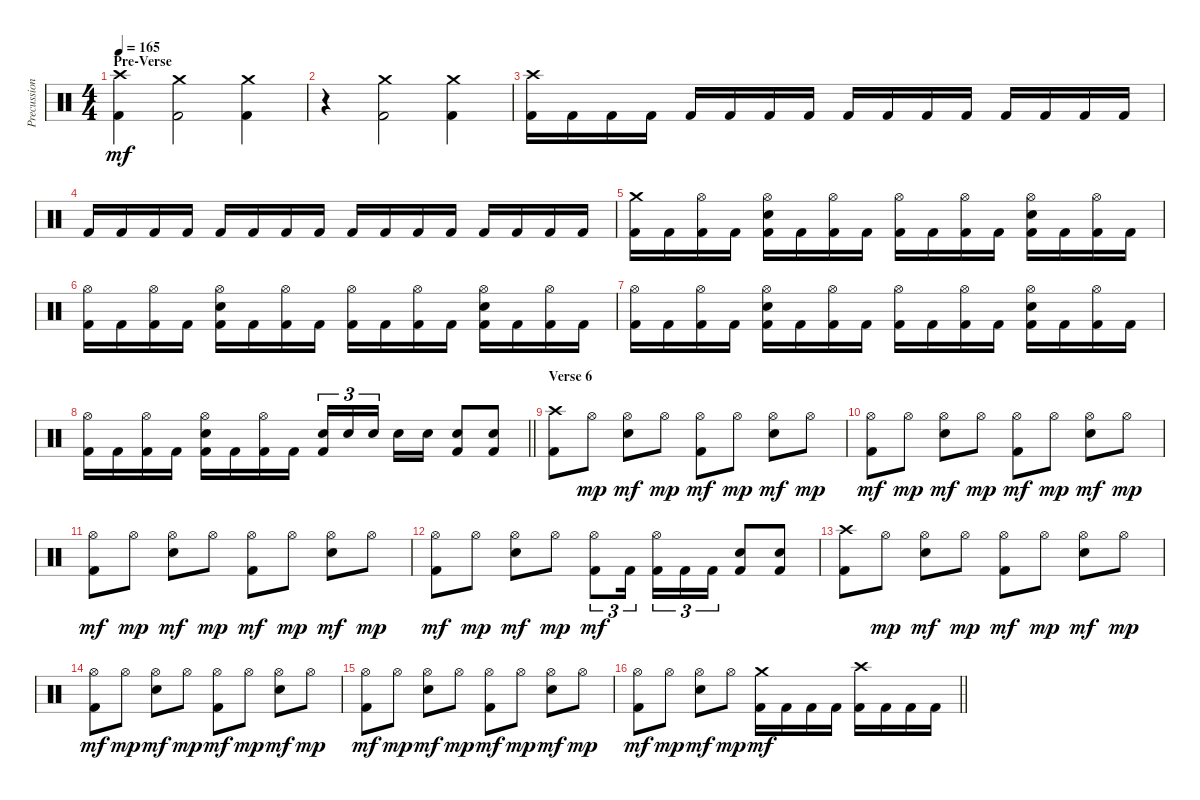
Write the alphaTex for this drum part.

\track ("Precussion" "Precussion") {instrument percussion}
\staff {score}
\articulation defaults
\ts (4 4)
\section ("" "Pre-Verse")
\tempo 165
\clef neutral
\ks c
("Crash high (hit)" "Kick (hit) 2").4{dy mf} ("Crash medium (hit)" "Kick (hit) 2").2 ("Crash medium (hit)" "Kick (hit) 2").4 |
r.4 ("Crash medium (hit)" "Kick (hit) 2").2 ("Crash medium (hit)" "Kick (hit) 2").4 |
("Crash high (hit)" "Kick (hit) 2").16 "Kick (hit) 2".16 "Kick (hit) 2".16 "Kick (hit) 2".16 "Kick (hit) 2".16 "Kick (hit) 2".16 "Kick (hit) 2".16 "Kick (hit) 2".16 "Kick (hit) 2".16 "Kick (hit) 2".16 "Kick (hit) 2".16 "Kick (hit) 2".16 "Kick (hit) 2".16 "Kick (hit) 2".16 "Kick (hit) 2".16 "Kick (hit) 2".16 |
"Kick (hit) 2".16 "Kick (hit) 2".16 "Kick (hit) 2".16 "Kick (hit) 2".16 "Kick (hit) 2".16 "Kick (hit) 2".16 "Kick (hit) 2".16 "Kick (hit) 2".16 "Kick (hit) 2".16 "Kick (hit) 2".16 "Kick (hit) 2".16 "Kick (hit) 2".16 "Kick (hit) 2".16 "Kick (hit) 2".16 "Kick (hit) 2".16 "Kick (hit) 2".16 |
("Crash medium (hit)" "Kick (hit) 2").16 "Kick (hit) 2".16 ("Hi-Hat (open)" "Kick (hit) 2").16 "Kick (hit) 2".16 ("Hi-Hat (open)" "Electric Snare (hit)" "Kick (hit) 2").16 "Kick (hit) 2".16 ("Hi-Hat (open)" "Kick (hit) 2").16 "Kick (hit) 2".16 ("Hi-Hat (open)" "Kick (hit) 2").16 "Kick (hit) 2".16 ("Hi-Hat (open)" "Kick (hit) 2").16 "Kick (hit) 2".16 ("Hi-Hat (open)" "Electric Snare (hit)" "Kick (hit) 2").16 "Kick (hit) 2".16 ("Hi-Hat (open)" "Kick (hit) 2").16 "Kick (hit) 2".16 |
("Hi-Hat (open)" "Kick (hit) 2").16 "Kick (hit) 2".16 ("Hi-Hat (open)" "Kick (hit) 2").16 "Kick (hit) 2".16 ("Hi-Hat (open)" "Electric Snare (hit)" "Kick (hit) 2").16 "Kick (hit) 2".16 ("Hi-Hat (open)" "Kick (hit) 2").16 "Kick (hit) 2".16 ("Hi-Hat (open)" "Kick (hit) 2").16 "Kick (hit) 2".16 ("Hi-Hat (open)" "Kick (hit) 2").16 "Kick (hit) 2".16 ("Hi-Hat (open)" "Electric Snare (hit)" "Kick (hit) 2").16 "Kick (hit) 2".16 ("Hi-Hat (open)" "Kick (hit) 2").16 "Kick (hit) 2".16 |
("Hi-Hat (open)" "Kick (hit) 2").16 "Kick (hit) 2".16 ("Hi-Hat (open)" "Kick (hit) 2").16 "Kick (hit) 2".16 ("Hi-Hat (open)" "Electric Snare (hit)" "Kick (hit) 2").16 "Kick (hit) 2".16 ("Hi-Hat (open)" "Kick (hit) 2").16 "Kick (hit) 2".16 ("Hi-Hat (open)" "Kick (hit) 2").16 "Kick (hit) 2".16 ("Hi-Hat (open)" "Kick (hit) 2").16 "Kick (hit) 2".16 ("Hi-Hat (open)" "Electric Snare (hit)" "Kick (hit) 2").16 "Kick (hit) 2".16 ("Hi-Hat (open)" "Kick (hit) 2").16 "Kick (hit) 2".16 |
\barLineRight lightlight
("Hi-Hat (open)" "Kick (hit) 2").16 "Kick (hit) 2".16 ("Hi-Hat (open)" "Kick (hit) 2").16 "Kick (hit) 2".16 ("Hi-Hat (open)" "Electric Snare (hit)" "Kick (hit) 2").16 "Kick (hit) 2".16 ("Hi-Hat (open)" "Kick (hit) 2").16 "Kick (hit) 2".16 ("Electric Snare (hit)" "Kick (hit) 2").16{tu (3 2)} "Electric Snare (hit)".16{tu (3 2)} "Electric Snare (hit)".16{tu (3 2) beam splitsecondary} "Electric Snare (hit)".16 "Electric Snare (hit)".16 ("Electric Snare (hit)" "Kick (hit) 2").8 ("Electric Snare (hit)" "Kick (hit) 2").8 |
\section ("" "Verse 6")
("Crash high (hit)" "Kick (hit) 2").8 "Hi-Hat (open)".8{dy mp} ("Hi-Hat (open)" "Electric Snare (hit)").8{dy mf} "Hi-Hat (open)".8{dy mp} ("Hi-Hat (open)" "Kick (hit) 2").8{dy mf} "Hi-Hat (open)".8{dy mp} ("Hi-Hat (open)" "Electric Snare (hit)").8{dy mf} "Hi-Hat (open)".8{dy mp} |
("Hi-Hat (open)" "Kick (hit) 2").8{dy mf} "Hi-Hat (open)".8{dy mp} ("Hi-Hat (open)" "Electric Snare (hit)").8{dy mf} "Hi-Hat (open)".8{dy mp} ("Hi-Hat (open)" "Kick (hit) 2").8{dy mf} "Hi-Hat (open)".8{dy mp} ("Hi-Hat (open)" "Electric Snare (hit)").8{dy mf} "Hi-Hat (open)".8{dy mp} |
("Hi-Hat (open)" "Kick (hit) 2").8{dy mf} "Hi-Hat (open)".8{dy mp} ("Hi-Hat (open)" "Electric Snare (hit)").8{dy mf} "Hi-Hat (open)".8{dy mp} ("Hi-Hat (open)" "Kick (hit) 2").8{dy mf} "Hi-Hat (open)".8{dy mp} ("Hi-Hat (open)" "Electric Snare (hit)").8{dy mf} "Hi-Hat (open)".8{dy mp} |
("Hi-Hat (open)" "Kick (hit) 2").8{dy mf} "Hi-Hat (open)".8{dy mp} ("Hi-Hat (open)" "Electric Snare (hit)").8{dy mf} "Hi-Hat (open)".8{dy mp} ("Hi-Hat (open)" "Kick (hit) 2").8{tu (3 2) dy mf} "Kick (hit) 2".16{tu (3 2) beam splitsecondary} ("Hi-Hat (open)" "Kick (hit) 2").16{tu (3 2)} "Kick (hit) 2".16{tu (3 2)} "Kick (hit) 2".16{tu (3 2)} ("Electric Snare (hit)" "Kick (hit) 2").8 ("Electric Snare (hit)" "Kick (hit) 2").8 |
("Crash high (hit)" "Kick (hit) 2").8 "Hi-Hat (open)".8{dy mp} ("Hi-Hat (open)" "Electric Snare (hit)").8{dy mf} "Hi-Hat (open)".8{dy mp} ("Hi-Hat (open)" "Kick (hit) 2").8{dy mf} "Hi-Hat (open)".8{dy mp} ("Hi-Hat (open)" "Electric Snare (hit)").8{dy mf} "Hi-Hat (open)".8{dy mp} |
("Hi-Hat (open)" "Kick (hit) 2").8{dy mf} "Hi-Hat (open)".8{dy mp} ("Hi-Hat (open)" "Electric Snare (hit)").8{dy mf} "Hi-Hat (open)".8{dy mp} ("Hi-Hat (open)" "Kick (hit) 2").8{dy mf} "Hi-Hat (open)".8{dy mp} ("Hi-Hat (open)" "Electric Snare (hit)").8{dy mf} "Hi-Hat (open)".8{dy mp} |
("Hi-Hat (open)" "Kick (hit) 2").8{dy mf} "Hi-Hat (open)".8{dy mp} ("Hi-Hat (open)" "Electric Snare (hit)").8{dy mf} "Hi-Hat (open)".8{dy mp} ("Hi-Hat (open)" "Kick (hit) 2").8{dy mf} "Hi-Hat (open)".8{dy mp} ("Hi-Hat (open)" "Electric Snare (hit)").8{dy mf} "Hi-Hat (open)".8{dy mp} |
\barLineRight lightlight
("Hi-Hat (open)" "Kick (hit) 2").8{dy mf} "Hi-Hat (open)".8{dy mp} ("Hi-Hat (open)" "Electric Snare (hit)").8{dy mf} "Hi-Hat (open)".8{dy mp} ("Crash medium (hit)" "Kick (hit) 2").16{dy mf} "Kick (hit) 2".16 "Kick (hit) 2".16 "Kick (hit) 2".16 ("Crash high (hit)" "Kick (hit) 2").16 "Kick (hit) 2".16 "Kick (hit) 2".16 "Kick (hit) 2".16
